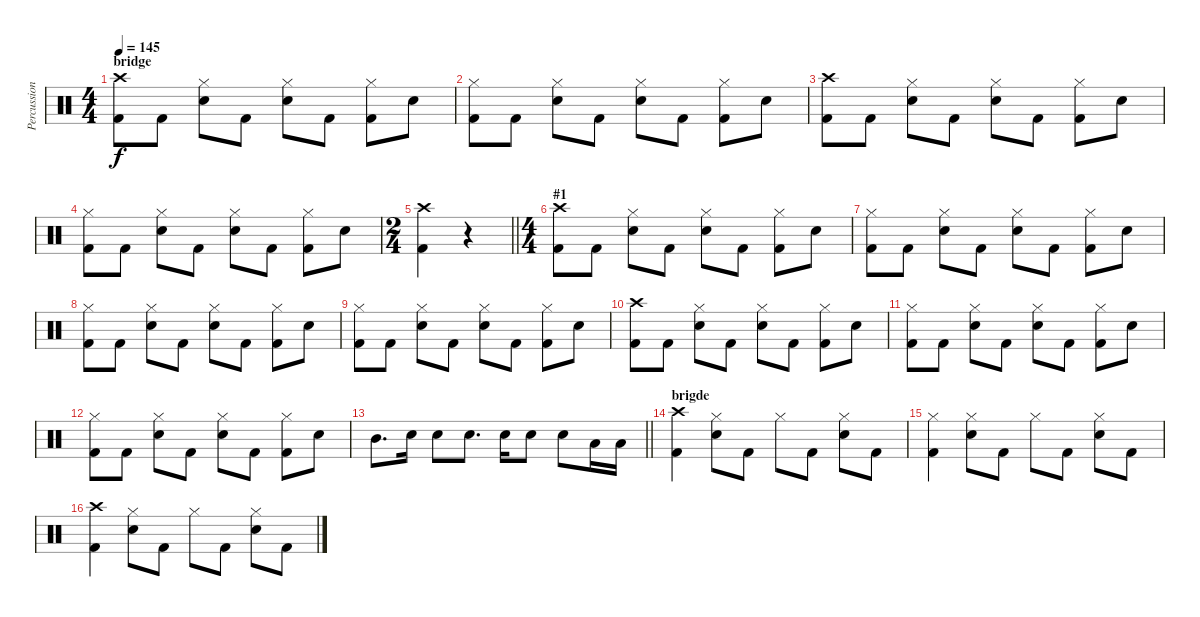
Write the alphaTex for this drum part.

\track ("Percussion" "Percussion") {instrument percussion}
\staff {score}
\articulation defaults
\ts (4 4)
\section ("" "bridge")
\tempo 145
\clef neutral
\ks c
("Crash high (hit)" "Kick (hit) 2").8{dy f} "Kick (hit) 2".8 ("Hi-Hat (closed)" "Electric Snare (hit)").8 "Kick (hit) 2".8 ("Hi-Hat (closed)" "Electric Snare (hit)").8 "Kick (hit) 2".8 ("Hi-Hat (closed)" "Kick (hit) 2").8 "Electric Snare (hit)".8 |
("Hi-Hat (closed)" "Kick (hit) 2").8 "Kick (hit) 2".8 ("Hi-Hat (closed)" "Electric Snare (hit)").8 "Kick (hit) 2".8 ("Hi-Hat (closed)" "Electric Snare (hit)").8 "Kick (hit) 2".8 ("Hi-Hat (closed)" "Kick (hit) 2").8 "Electric Snare (hit)".8 |
("Crash high (hit)" "Kick (hit) 2").8 "Kick (hit) 2".8 ("Hi-Hat (closed)" "Electric Snare (hit)").8 "Kick (hit) 2".8 ("Hi-Hat (closed)" "Electric Snare (hit)").8 "Kick (hit) 2".8 ("Hi-Hat (closed)" "Kick (hit) 2").8 "Electric Snare (hit)".8 |
("Hi-Hat (closed)" "Kick (hit) 2").8 "Kick (hit) 2".8 ("Hi-Hat (closed)" "Electric Snare (hit)").8 "Kick (hit) 2".8 ("Hi-Hat (closed)" "Electric Snare (hit)").8 "Kick (hit) 2".8 ("Hi-Hat (closed)" "Kick (hit) 2").8 "Electric Snare (hit)".8 |
\ts (2 4)
\barLineRight lightlight
("Crash high (hit)" "Kick (hit) 2").4 r.4 |
\ts (4 4)
\section ("" "#1")
("Crash high (hit)" "Kick (hit) 2").8 "Kick (hit) 2".8 ("Hi-Hat (closed)" "Electric Snare (hit)").8 "Kick (hit) 2".8 ("Hi-Hat (closed)" "Electric Snare (hit)").8 "Kick (hit) 2".8 ("Hi-Hat (closed)" "Kick (hit) 2").8 "Electric Snare (hit)".8 |
("Hi-Hat (closed)" "Kick (hit) 2").8 "Kick (hit) 2".8 ("Hi-Hat (closed)" "Electric Snare (hit)").8 "Kick (hit) 2".8 ("Hi-Hat (closed)" "Electric Snare (hit)").8 "Kick (hit) 2".8 ("Hi-Hat (closed)" "Kick (hit) 2").8 "Electric Snare (hit)".8 |
("Hi-Hat (closed)" "Kick (hit) 2").8 "Kick (hit) 2".8 ("Hi-Hat (closed)" "Electric Snare (hit)").8 "Kick (hit) 2".8 ("Hi-Hat (closed)" "Electric Snare (hit)").8 "Kick (hit) 2".8 ("Hi-Hat (closed)" "Kick (hit) 2").8 "Electric Snare (hit)".8 |
("Hi-Hat (closed)" "Kick (hit) 2").8 "Kick (hit) 2".8 ("Hi-Hat (closed)" "Electric Snare (hit)").8 "Kick (hit) 2".8 ("Hi-Hat (closed)" "Electric Snare (hit)").8 "Kick (hit) 2".8 ("Hi-Hat (closed)" "Kick (hit) 2").8 "Electric Snare (hit)".8 |
("Crash high (hit)" "Kick (hit) 2").8 "Kick (hit) 2".8 ("Hi-Hat (closed)" "Electric Snare (hit)").8 "Kick (hit) 2".8 ("Hi-Hat (closed)" "Electric Snare (hit)").8 "Kick (hit) 2".8 ("Hi-Hat (closed)" "Kick (hit) 2").8 "Electric Snare (hit)".8 |
("Hi-Hat (closed)" "Kick (hit) 2").8 "Kick (hit) 2".8 ("Hi-Hat (closed)" "Electric Snare (hit)").8 "Kick (hit) 2".8 ("Hi-Hat (closed)" "Electric Snare (hit)").8 "Kick (hit) 2".8 ("Hi-Hat (closed)" "Kick (hit) 2").8 "Electric Snare (hit)".8 |
("Hi-Hat (closed)" "Kick (hit) 2").8 "Kick (hit) 2".8 ("Hi-Hat (closed)" "Electric Snare (hit)").8 "Kick (hit) 2".8 ("Hi-Hat (closed)" "Electric Snare (hit)").8 "Kick (hit) 2".8 ("Hi-Hat (closed)" "Kick (hit) 2").8 "Electric Snare (hit)".8 |
\barLineRight lightlight "Mid Tom (hit)".8{d} "Electric Snare (hit)".16 "Electric Snare (hit)".8 "Electric Snare (hit)".8{d} "Electric Snare (hit)".16 "Electric Snare (hit)".8 "Electric Snare (hit)".8 "Low Tom (hit)".16 "Low Tom (hit)".16
|
\section ("" "brigde")
("Crash high (hit)" "Kick (hit) 2").4 ("Hi-Hat (closed)" "Electric Snare (hit)").8 "Kick (hit) 2".8 "Hi-Hat (closed)".8 "Kick (hit) 2".8 ("Hi-Hat (closed)" "Electric Snare (hit)").8 "Kick (hit) 2".8 |
("Hi-Hat (closed)" "Kick (hit) 2").4 ("Hi-Hat (closed)" "Electric Snare (hit)").8 "Kick (hit) 2".8 "Hi-Hat (closed)".8 "Kick (hit) 2".8 ("Hi-Hat (closed)" "Electric Snare (hit)").8 "Kick (hit) 2".8 |
("Crash high (hit)" "Kick (hit) 2").4 ("Hi-Hat (closed)" "Electric Snare (hit)").8 "Kick (hit) 2".8 "Hi-Hat (closed)".8 "Kick (hit) 2".8 ("Hi-Hat (closed)" "Electric Snare (hit)").8 "Kick (hit) 2".8
